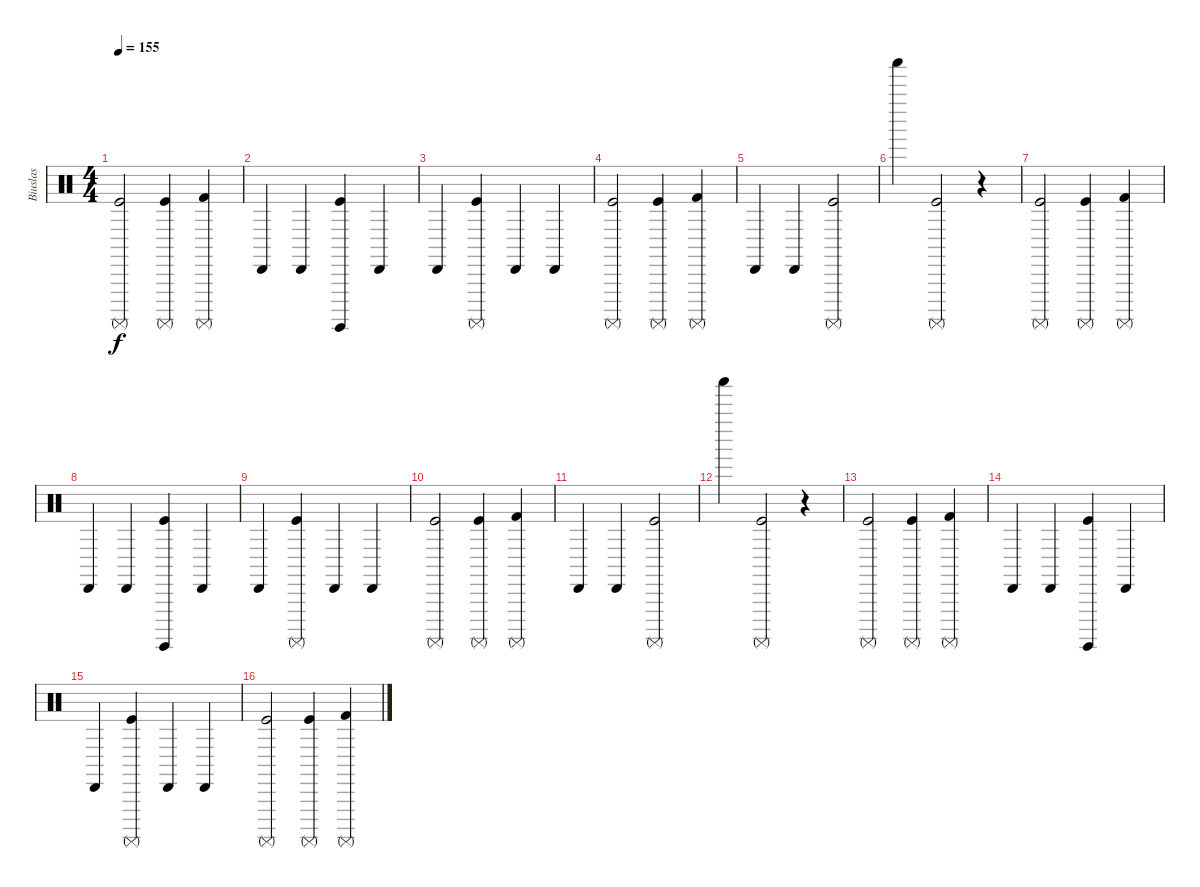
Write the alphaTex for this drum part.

\track ("Biuslas" "Biuslas") {instrument percussion}
\staff {score}
\articulation defaults
\ts (4 4)
\tempo 155
\clef neutral
\ks c
("Surdo (mute)" "Kick (hit)").2{dy f} ("Surdo (mute)" "Kick (hit)").4 ("Surdo (mute)" "Kick (hit) 2").4 |
"Cabasa (hit)".4 "Cabasa (hit)".4 ("Surdo (hit)" "Kick (hit)").4 "Cabasa (hit)".4 |
"Cabasa (hit)".4 ("Surdo (mute)" "Kick (hit)").4 "Cabasa (hit)".4 "Cabasa (hit)".4 |
("Surdo (mute)" "Kick (hit)").2 ("Surdo (mute)" "Kick (hit)").4 ("Surdo (mute)" "Kick (hit) 2").4 |
"Cabasa (hit)".4 "Cabasa (hit)".4 ("Surdo (mute)" "Kick (hit)").2 |
"Shaker (hit)".4 ("Surdo (mute)" "Kick (hit)").2 r.4 |
("Surdo (mute)" "Kick (hit)").2 ("Surdo (mute)" "Kick (hit)").4 ("Surdo (mute)" "Kick (hit) 2").4 |
"Cabasa (hit)".4 "Cabasa (hit)".4 ("Surdo (hit)" "Kick (hit)").4 "Cabasa (hit)".4 |
"Cabasa (hit)".4 ("Surdo (mute)" "Kick (hit)").4 "Cabasa (hit)".4 "Cabasa (hit)".4 |
("Surdo (mute)" "Kick (hit)").2 ("Surdo (mute)" "Kick (hit)").4 ("Surdo (mute)" "Kick (hit) 2").4 |
"Cabasa (hit)".4 "Cabasa (hit)".4 ("Surdo (mute)" "Kick (hit)").2 |
"Shaker (hit)".4 ("Surdo (mute)" "Kick (hit)").2 r.4 |
("Surdo (mute)" "Kick (hit)").2 ("Surdo (mute)" "Kick (hit)").4 ("Surdo (mute)" "Kick (hit) 2").4 |
"Cabasa (hit)".4 "Cabasa (hit)".4 ("Surdo (hit)" "Kick (hit)").4 "Cabasa (hit)".4 |
"Cabasa (hit)".4 ("Surdo (mute)" "Kick (hit)").4 "Cabasa (hit)".4 "Cabasa (hit)".4 |
("Surdo (mute)" "Kick (hit)").2 ("Surdo (mute)" "Kick (hit)").4 ("Surdo (mute)" "Kick (hit) 2").4
